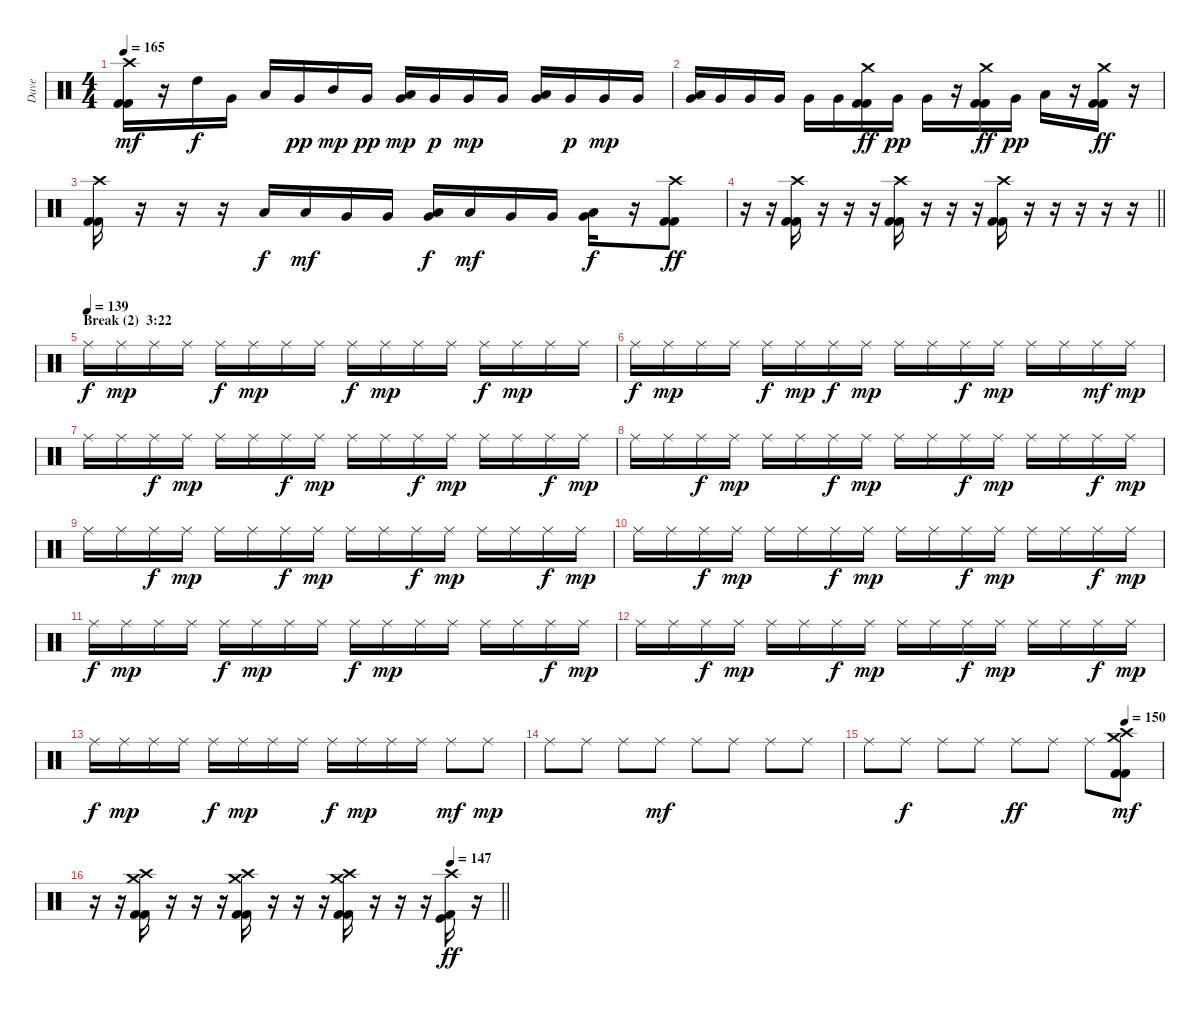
\track ("Dave" "Dave") {instrument percussion}
\staff {score}
\articulation defaults
\ts (4 4)
\tempo 165
\clef neutral
\ks c
("Crash high (hit)" "Kick (hit) 2" "Kick (hit) 2").16{dy mf} r.16 "High Tom (hit)".16{dy f} "Very Low Tom (hit)".16 "Low Floor Tom (hit)".16 "Very Low Tom (hit)".16{dy pp} "Mid Tom (hit)".16{dy mp} "Very Low Tom (hit)".16{dy pp} ("Low Tom (hit)" "Very Low Tom (hit)").16{dy mp} "Very Low Tom (hit)".16{dy p} "Very Low Tom (hit)".16{dy mp} "Very Low Tom (hit)".16 ("Low Tom (hit)" "Very Low Tom (hit)").16 "Very Low Tom (hit)".16{dy p} "Very Low Tom (hit)".16{dy mp} "Very Low Tom (hit)".16 |
("Low Tom (hit)" "Very Low Tom (hit)").16 "Very Low Tom (hit)".16 "Very Low Tom (hit)".16 "Very Low Tom (hit)".16 "Very Low Tom (hit)".16 "Very Low Tom (hit)".16 ("Crash medium (hit)" "Kick (hit) 2" "Kick (hit) 2").16{dy ff} "Very Low Tom (hit)".16{dy pp} "Very Low Tom (hit)".16 r.16 ("Crash medium (hit)" "Kick (hit) 2" "Kick (hit) 2").16{dy ff} "Very Low Tom (hit)".16{dy pp} "Low Floor Tom (hit)".16 r.16 ("Crash medium (hit)" "Kick (hit) 2" "Kick (hit) 2").16{dy ff} r.16 |
("Crash high (hit)" "Kick (hit) 2" "Kick (hit) 2").16 r.16 r.16 r.16 "Low Tom (hit)".16{dy f} "Low Floor Tom (hit)".16{dy mf} "Very Low Tom (hit)".16 "Very Low Tom (hit)".16 ("Very Low Tom (hit)" "Low Floor Tom (hit)").16{dy f} "Low Floor Tom (hit)".16{dy mf} "Very Low Tom (hit)".16 "Very Low Tom (hit)".16 ("Low Floor Tom (hit)" "Very Low Tom (hit)").16{bd 60 dy f} r.16 ("Crash high (hit)" "Kick (hit) 2" "Kick (hit) 2").8{dy ff} |
\barLineRight lightlight
r.16 r.16 ("Crash high (hit)" "Kick (hit) 2" "Kick (hit) 2").16 r.16 r.16 r.16 ("Crash high (hit)" "Kick (hit) 2" "Kick (hit) 2").16 r.16 r.16 r.16 ("Crash high (hit)" "Kick (hit) 2" "Kick (hit) 2").16 r.16 r.16 r.16 r.16 r.16 |
\section ("" "Break (2)  3:22")
\tempo (139)
"Ride (middle)".16{dy f} "Ride (middle)".16{dy mp} "Ride (middle)".16 "Ride (middle)".16 "Ride (middle)".16{dy f} "Ride (middle)".16{dy mp} "Ride (middle)".16 "Ride (middle)".16 "Ride (middle)".16{dy f} "Ride (middle)".16{dy mp} "Ride (middle)".16 "Ride (middle)".16 "Ride (middle)".16{dy f} "Ride (middle)".16{dy mp} "Ride (middle)".16 "Ride (middle)".16 |
"Ride (middle)".16{dy f} "Ride (middle)".16{dy mp} "Ride (middle)".16 "Ride (middle)".16 "Ride (middle)".16{dy f} "Ride (middle)".16{dy mp} "Ride (middle)".16{dy f} "Ride (middle)".16{dy mp} "Ride (middle)".16 "Ride (middle)".16 "Ride (middle)".16{dy f} "Ride (middle)".16{dy mp} "Ride (middle)".16 "Ride (middle)".16 "Ride (middle)".16{dy mf} "Ride (middle)".16{dy mp} |
"Ride (middle)".16 "Ride (middle)".16 "Ride (middle)".16{dy f} "Ride (middle)".16{dy mp} "Ride (middle)".16 "Ride (middle)".16 "Ride (middle)".16{dy f} "Ride (middle)".16{dy mp} "Ride (middle)".16 "Ride (middle)".16 "Ride (middle)".16{dy f} "Ride (middle)".16{dy mp} "Ride (middle)".16 "Ride (middle)".16 "Ride (middle)".16{dy f} "Ride (middle)".16{dy mp} |
"Ride (middle)".16 "Ride (middle)".16 "Ride (middle)".16{dy f} "Ride (middle)".16{dy mp} "Ride (middle)".16 "Ride (middle)".16 "Ride (middle)".16{dy f} "Ride (middle)".16{dy mp} "Ride (middle)".16 "Ride (middle)".16 "Ride (middle)".16{dy f} "Ride (middle)".16{dy mp} "Ride (middle)".16 "Ride (middle)".16 "Ride (middle)".16{dy f} "Ride (middle)".16{dy mp} |
"Ride (middle)".16 "Ride (middle)".16 "Ride (middle)".16{dy f} "Ride (middle)".16{dy mp} "Ride (middle)".16 "Ride (middle)".16 "Ride (middle)".16{dy f} "Ride (middle)".16{dy mp} "Ride (middle)".16 "Ride (middle)".16 "Ride (middle)".16{dy f} "Ride (middle)".16{dy mp} "Ride (middle)".16 "Ride (middle)".16 "Ride (middle)".16{dy f} "Ride (middle)".16{dy mp} |
"Ride (middle)".16 "Ride (middle)".16 "Ride (middle)".16{dy f} "Ride (middle)".16{dy mp} "Ride (middle)".16 "Ride (middle)".16 "Ride (middle)".16{dy f} "Ride (middle)".16{dy mp} "Ride (middle)".16 "Ride (middle)".16 "Ride (middle)".16{dy f} "Ride (middle)".16{dy mp} "Ride (middle)".16 "Ride (middle)".16 "Ride (middle)".16{dy f} "Ride (middle)".16{dy mp} |
"Ride (middle)".16{dy f} "Ride (middle)".16{dy mp} "Ride (middle)".16 "Ride (middle)".16 "Ride (middle)".16{dy f} "Ride (middle)".16{dy mp} "Ride (middle)".16 "Ride (middle)".16 "Ride (middle)".16{dy f} "Ride (middle)".16{dy mp} "Ride (middle)".16 "Ride (middle)".16 "Ride (middle)".16 "Ride (middle)".16 "Ride (middle)".16{dy f} "Ride (middle)".16{dy mp} |
"Ride (middle)".16 "Ride (middle)".16 "Ride (middle)".16{dy f} "Ride (middle)".16{dy mp} "Ride (middle)".16 "Ride (middle)".16 "Ride (middle)".16{dy f} "Ride (middle)".16{dy mp} "Ride (middle)".16 "Ride (middle)".16 "Ride (middle)".16{dy f} "Ride (middle)".16{dy mp} "Ride (middle)".16 "Ride (middle)".16 "Ride (middle)".16{dy f} "Ride (middle)".16{dy mp} |
"Ride (middle)".16{dy f} "Ride (middle)".16{dy mp} "Ride (middle)".16 "Ride (middle)".16 "Ride (middle)".16{dy f} "Ride (middle)".16{dy mp} "Ride (middle)".16 "Ride (middle)".16 "Ride (middle)".16{dy f} "Ride (middle)".16{dy mp} "Ride (middle)".16 "Ride (middle)".16 "Ride (middle)".8{dy mf} "Ride (middle)".8{dy mp} |
"Ride (middle)".8 "Ride (middle)".8 "Ride (middle)".8 "Ride (middle)".8{dy mf} "Ride (middle)".8 "Ride (middle)".8 "Ride (middle)".8 "Ride (middle)".8 |
\tempo (150 0.875)
"Ride (middle)".8 "Ride (middle)".8{dy f} "Ride (middle)".8 "Ride (middle)".8 "Ride (middle)".8{dy ff} "Ride (middle)".8 "Ride (middle)".8 ("Crash medium (hit)" "Crash high (hit)" "Kick (hit) 2" "Kick (hit) 2").8{dy mf} |
\tempo (147 0.875)
\barLineRight lightlight
r.16 r.16 ("Crash medium (hit)" "Crash high (hit)" "Kick (hit) 2" "Kick (hit) 2").16 r.16 r.16 r.16 ("Crash medium (hit)" "Crash high (hit)" "Kick (hit) 2" "Kick (hit) 2").16 r.16 r.16 r.16 ("Crash medium (hit)" "Crash high (hit)" "Kick (hit) 2" "Kick (hit) 2").16 r.16 r.16 r.16 ("Crash high (hit)" "Kick (hit)" "Kick (hit) 2").16{dy ff} r.16
